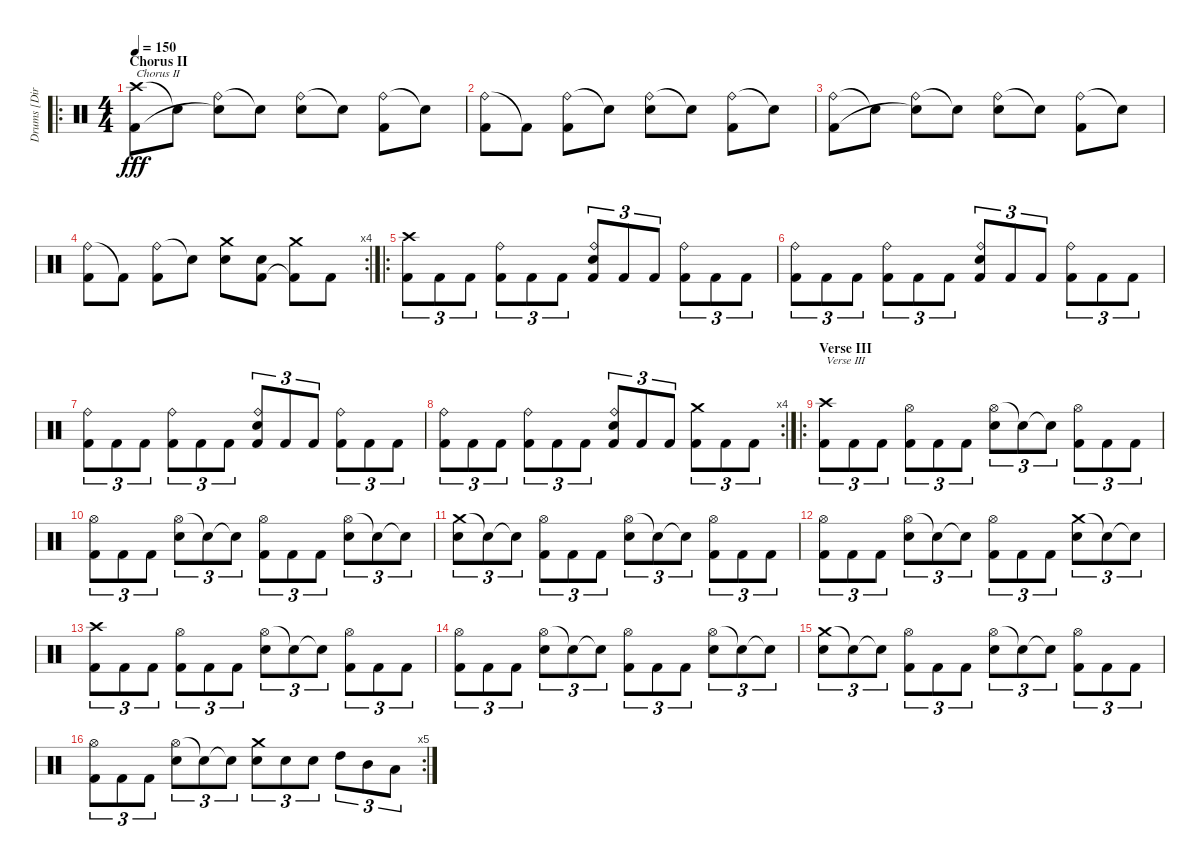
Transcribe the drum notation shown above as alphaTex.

\track ("Drums [Dirge Rep]" "Drums [Dir") {instrument percussion}
\staff {score}
\articulation defaults
\ro
\ts (4 4)
\section ("" "Chorus II")
\tempo 150
\clef neutral
\ks c
("Crash high (hit)" "Kick (hit) 2").8{txt "Chorus II" dy fff} "Snare (hit)"{t}.8 ("Ride (bell)" "Snare (hit)"{t}).8 "Snare (hit)"{t}.8 ("Ride (bell)" "Electric Snare (hit)").8 "Snare (hit)"{t}.8 ("Ride (bell)" "Kick (hit) 2").8 "Snare (hit)"{t}.8 |
("Ride (bell)" "Kick (hit) 2").8 "Kick (hit) 2"{t}.8 ("Ride (bell)" "Kick (hit) 2").8 "Snare (hit)"{t}.8 ("Ride (bell)" "Electric Snare (hit)").8 "Snare (hit)"{t}.8 ("Ride (bell)" "Kick (hit) 2").8 "Snare (hit)"{t}.8 |
("Ride (bell)" "Kick (hit) 2").8 "Snare (hit)"{t}.8 ("Ride (bell)" "Snare (hit)"{t}).8 "Snare (hit)"{t}.8 ("Ride (bell)" "Electric Snare (hit)").8 "Snare (hit)"{t}.8 ("Ride (bell)" "Kick (hit) 2").8 "Snare (hit)"{t}.8 |
\rc 4
("Ride (bell)" "Kick (hit) 2").8 "Kick (hit) 2"{t}.8 ("Ride (bell)" "Kick (hit) 2").8 "Snare (hit)"{t}.8 ("Crash medium (hit)" "Electric Snare (hit)").8 ("Electric Snare (hit)" "Kick (hit) 2").8 ("Crash medium (hit)" "Kick (hit) 2"{t}).8 "Kick (hit) 2".8 |
\ro
("Crash high (hit)" "Kick (hit) 2").8{tu (3 2)} "Kick (hit) 2".8{tu (3 2)} "Kick (hit) 2".8{tu (3 2)} ("Ride (bell)" "Kick (hit) 2").8{tu (3 2)} "Kick (hit) 2".8{tu (3 2)} "Kick (hit) 2".8{tu (3 2)} ("Ride (bell)" "Electric Snare (hit)" "Kick (hit) 2").8{tu (3 2)} "Kick (hit) 2".8{tu (3 2)} "Kick (hit) 2".8{tu (3 2)} ("Ride (bell)" "Kick (hit) 2").8{tu (3 2)} "Kick (hit) 2".8{tu (3 2)} "Kick (hit) 2".8{tu (3 2)} |
("Ride (bell)" "Kick (hit) 2").8{tu (3 2)} "Kick (hit) 2".8{tu (3 2)} "Kick (hit) 2".8{tu (3 2)} ("Ride (bell)" "Kick (hit) 2").8{tu (3 2)} "Kick (hit) 2".8{tu (3 2)} "Kick (hit) 2".8{tu (3 2)} ("Ride (bell)" "Electric Snare (hit)" "Kick (hit) 2").8{tu (3 2)} "Kick (hit) 2".8{tu (3 2)} "Kick (hit) 2".8{tu (3 2)} ("Ride (bell)" "Kick (hit) 2").8{tu (3 2)} "Kick (hit) 2".8{tu (3 2)} "Kick (hit) 2".8{tu (3 2)} |
("Ride (bell)" "Kick (hit) 2").8{tu (3 2)} "Kick (hit) 2".8{tu (3 2)} "Kick (hit) 2".8{tu (3 2)} ("Ride (bell)" "Kick (hit) 2").8{tu (3 2)} "Kick (hit) 2".8{tu (3 2)} "Kick (hit) 2".8{tu (3 2)} ("Ride (bell)" "Electric Snare (hit)" "Kick (hit) 2").8{tu (3 2)} "Kick (hit) 2".8{tu (3 2)} "Kick (hit) 2".8{tu (3 2)} ("Ride (bell)" "Kick (hit) 2").8{tu (3 2)} "Kick (hit) 2".8{tu (3 2)} "Kick (hit) 2".8{tu (3 2)} |
\rc 4
("Ride (bell)" "Kick (hit) 2").8{tu (3 2)} "Kick (hit) 2".8{tu (3 2)} "Kick (hit) 2".8{tu (3 2)} ("Ride (bell)" "Kick (hit) 2").8{tu (3 2)} "Kick (hit) 2".8{tu (3 2)} "Kick (hit) 2".8{tu (3 2)} ("Ride (bell)" "Electric Snare (hit)" "Kick (hit) 2").8{tu (3 2)} "Kick (hit) 2".8{tu (3 2)} "Kick (hit) 2".8{tu (3 2)} ("Crash medium (hit)" "Kick (hit) 2").8{tu (3 2)} "Kick (hit) 2".8{tu (3 2)} "Kick (hit) 2".8{tu (3 2)} |
\ro
\section ("" "Verse III")
("Crash high (hit)" "Kick (hit) 2").8{tu (3 2) txt "Verse III"} "Kick (hit) 2".8{tu (3 2)} "Kick (hit) 2".8{tu (3 2)} ("Hi-Hat (open)" "Kick (hit) 2").8{tu (3 2)} "Kick (hit) 2".8{tu (3 2)} "Kick (hit) 2".8{tu (3 2)} ("Hi-Hat (open)" "Electric Snare (hit)").8{tu (3 2)} "Snare (hit)"{t}.8{tu (3 2)} "Snare (hit)"{t}.8{tu (3 2)} ("Hi-Hat (open)" "Kick (hit) 2").8{tu (3 2)} "Kick (hit) 2".8{tu (3 2)} "Kick (hit) 2".8{tu (3 2)} |
("Hi-Hat (open)" "Kick (hit) 2").8{tu (3 2)} "Kick (hit) 2".8{tu (3 2)} "Kick (hit) 2".8{tu (3 2)} ("Hi-Hat (open)" "Electric Snare (hit)").8{tu (3 2)} "Snare (hit)"{t}.8{tu (3 2)} "Snare (hit)"{t}.8{tu (3 2)} ("Hi-Hat (open)" "Kick (hit) 2").8{tu (3 2)} "Kick (hit) 2".8{tu (3 2)} "Kick (hit) 2".8{tu (3 2)} ("Hi-Hat (open)" "Electric Snare (hit)").8{tu (3 2)} "Snare (hit)"{t}.8{tu (3 2)} "Snare (hit)"{t}.8{tu (3 2)} |
("Crash medium (hit)" "Electric Snare (hit)").8{tu (3 2)} "Snare (hit)"{t}.8{tu (3 2)} "Snare (hit)"{t}.8{tu (3 2)} ("Hi-Hat (open)" "Kick (hit) 2").8{tu (3 2)} "Kick (hit) 2".8{tu (3 2)} "Kick (hit) 2".8{tu (3 2)} ("Hi-Hat (open)" "Electric Snare (hit)").8{tu (3 2)} "Snare (hit)"{t}.8{tu (3 2)} "Snare (hit)"{t}.8{tu (3 2)} ("Hi-Hat (open)" "Kick (hit) 2").8{tu (3 2)} "Kick (hit) 2".8{tu (3 2)} "Kick (hit) 2".8{tu (3 2)} |
("Hi-Hat (open)" "Kick (hit) 2").8{tu (3 2)} "Kick (hit) 2".8{tu (3 2)} "Kick (hit) 2".8{tu (3 2)} ("Hi-Hat (open)" "Electric Snare (hit)").8{tu (3 2)} "Snare (hit)"{t}.8{tu (3 2)} "Snare (hit)"{t}.8{tu (3 2)} ("Hi-Hat (open)" "Kick (hit) 2").8{tu (3 2)} "Kick (hit) 2".8{tu (3 2)} "Kick (hit) 2".8{tu (3 2)} ("Crash medium (hit)" "Electric Snare (hit)").8{tu (3 2)} "Snare (hit)"{t}.8{tu (3 2)} "Snare (hit)"{t}.8{tu (3 2)} |
("Crash high (hit)" "Kick (hit) 2").8{tu (3 2)} "Kick (hit) 2".8{tu (3 2)} "Kick (hit) 2".8{tu (3 2)} ("Hi-Hat (open)" "Kick (hit) 2").8{tu (3 2)} "Kick (hit) 2".8{tu (3 2)} "Kick (hit) 2".8{tu (3 2)} ("Hi-Hat (open)" "Electric Snare (hit)").8{tu (3 2)} "Snare (hit)"{t}.8{tu (3 2)} "Snare (hit)"{t}.8{tu (3 2)} ("Hi-Hat (open)" "Kick (hit) 2").8{tu (3 2)} "Kick (hit) 2".8{tu (3 2)} "Kick (hit) 2".8{tu (3 2)} |
("Hi-Hat (open)" "Kick (hit) 2").8{tu (3 2)} "Kick (hit) 2".8{tu (3 2)} "Kick (hit) 2".8{tu (3 2)} ("Hi-Hat (open)" "Electric Snare (hit)").8{tu (3 2)} "Snare (hit)"{t}.8{tu (3 2)} "Snare (hit)"{t}.8{tu (3 2)} ("Hi-Hat (open)" "Kick (hit) 2").8{tu (3 2)} "Kick (hit) 2".8{tu (3 2)} "Kick (hit) 2".8{tu (3 2)} ("Hi-Hat (open)" "Electric Snare (hit)").8{tu (3 2)} "Snare (hit)"{t}.8{tu (3 2)} "Snare (hit)"{t}.8{tu (3 2)} |
("Crash medium (hit)" "Electric Snare (hit)").8{tu (3 2)} "Snare (hit)"{t}.8{tu (3 2)} "Snare (hit)"{t}.8{tu (3 2)} ("Hi-Hat (open)" "Kick (hit) 2").8{tu (3 2)} "Kick (hit) 2".8{tu (3 2)} "Kick (hit) 2".8{tu (3 2)} ("Hi-Hat (open)" "Electric Snare (hit)").8{tu (3 2)} "Snare (hit)"{t}.8{tu (3 2)} "Snare (hit)"{t}.8{tu (3 2)} ("Hi-Hat (open)" "Kick (hit) 2").8{tu (3 2)} "Kick (hit) 2".8{tu (3 2)} "Kick (hit) 2".8{tu (3 2)} |
\rc 5
("Hi-Hat (open)" "Kick (hit) 2").8{tu (3 2)} "Kick (hit) 2".8{tu (3 2)} "Kick (hit) 2".8{tu (3 2)} ("Hi-Hat (open)" "Electric Snare (hit)").8{tu (3 2)} "Snare (hit)"{t}.8{tu (3 2)} "Snare (hit)"{t}.8{tu (3 2)} ("Crash medium (hit)" "Electric Snare (hit)").8{tu (3 2)} "Electric Snare (hit)".8{tu (3 2)} "Electric Snare (hit)".8{tu (3 2)} "High Tom (hit)".8{tu (3 2)} "Mid Tom (hit)".8{tu (3 2)} "Low Tom (hit)".8{tu (3 2)}
